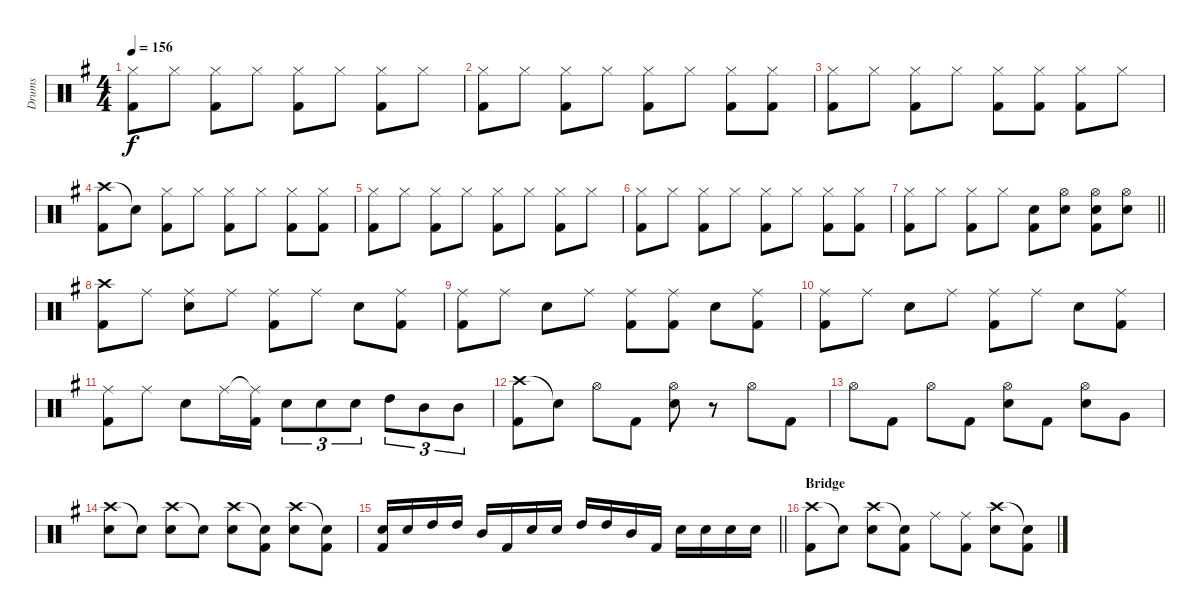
\track ("Drums" "Drums") {instrument percussion}
\staff {score}
\articulation defaults
\ts (4 4)
\tempo 156
\clef neutral
\ks g
("Hi-Hat (closed)" "Kick (hit) 2").8{dy f} "Hi-Hat (closed)".8 ("Hi-Hat (closed)" "Kick (hit) 2").8 "Hi-Hat (closed)".8 ("Hi-Hat (closed)" "Kick (hit) 2").8 "Hi-Hat (closed)".8 ("Hi-Hat (closed)" "Kick (hit) 2").8 "Hi-Hat (closed)".8 |
("Hi-Hat (closed)" "Kick (hit) 2").8 "Hi-Hat (closed)".8 ("Hi-Hat (closed)" "Kick (hit) 2").8 "Hi-Hat (closed)".8 ("Hi-Hat (closed)" "Kick (hit) 2").8 "Hi-Hat (closed)".8 ("Hi-Hat (closed)" "Kick (hit) 2").8 ("Hi-Hat (closed)" "Kick (hit) 2").8 |
("Hi-Hat (closed)" "Kick (hit) 2").8 "Hi-Hat (closed)".8 ("Hi-Hat (closed)" "Kick (hit) 2").8 "Hi-Hat (closed)".8 ("Hi-Hat (closed)" "Kick (hit) 2").8 ("Hi-Hat (closed)" "Kick (hit) 2").8 ("Hi-Hat (closed)" "Kick (hit) 2").8 "Hi-Hat (closed)".8 |
("Crash high (hit)" "Kick (hit) 2").8 "Snare (hit)"{t}.8 ("Hi-Hat (closed)" "Kick (hit) 2").8 "Hi-Hat (closed)".8 ("Hi-Hat (closed)" "Kick (hit) 2").8 "Hi-Hat (closed)".8 ("Hi-Hat (closed)" "Kick (hit) 2").8 ("Hi-Hat (closed)" "Kick (hit) 2").8 |
("Hi-Hat (closed)" "Kick (hit) 2").8 "Hi-Hat (closed)".8 ("Hi-Hat (closed)" "Kick (hit) 2").8 "Hi-Hat (closed)".8 ("Hi-Hat (closed)" "Kick (hit) 2").8 "Hi-Hat (closed)".8 ("Hi-Hat (closed)" "Kick (hit) 2").8 "Hi-Hat (closed)".8 |
("Hi-Hat (closed)" "Kick (hit) 2").8 "Hi-Hat (closed)".8 ("Hi-Hat (closed)" "Kick (hit) 2").8 "Hi-Hat (closed)".8 ("Hi-Hat (closed)" "Kick (hit) 2").8 "Hi-Hat (closed)".8 ("Hi-Hat (closed)" "Kick (hit) 2").8 ("Hi-Hat (closed)" "Kick (hit) 2").8 |
\barLineRight lightlight
("Hi-Hat (closed)" "Kick (hit) 2").8 "Hi-Hat (closed)".8 ("Hi-Hat (closed)" "Kick (hit) 2").8 "Hi-Hat (closed)".8 ("Snare (hit) 2" "Kick (hit) 2").8 ("Hi-Hat (open)" "Snare (hit) 2").8 ("Hi-Hat (open)" "Snare (hit) 2" "Kick (hit) 2").8 ("Hi-Hat (open)" "Snare (hit) 2").8 |
("Crash high (hit)" "Kick (hit) 2").8 "Ride (middle)".8 ("Ride (middle)" "Snare (hit) 2").8 "Ride (middle)".8 ("Ride (middle)" "Kick (hit) 2").8 "Ride (middle)".8 "Snare (hit) 2".8 ("Ride (middle)" "Kick (hit) 2").8 |
("Ride (middle)" "Kick (hit) 2").8 "Ride (middle)".8 "Snare (hit) 2".8 "Ride (middle)".8 ("Ride (middle)" "Kick (hit) 2").8 ("Ride (middle)" "Kick (hit) 2").8 "Snare (hit) 2".8 ("Ride (middle)" "Kick (hit) 2").8 |
("Ride (middle)" "Kick (hit) 2").8 "Ride (middle)".8 "Snare (hit) 2".8 "Ride (middle)".8 ("Ride (middle)" "Kick (hit) 2").8 "Ride (middle)".8 "Snare (hit) 2".8 ("Ride (middle)" "Kick (hit) 2").8 |
("Ride (middle)" "Kick (hit) 2").8 "Ride (middle)".8 "Snare (hit) 2".8 "Ride (middle)".16 ("Ride (middle)"{t} "Kick (hit) 2").16 "Snare (hit) 2".8{tu (3 2)} "Snare (hit) 2".8{tu (3 2)} "Snare (hit) 2".8{tu (3 2)} "High Tom (hit)".8{tu (3 2)} "Mid Tom (hit)".8{tu (3 2)} "Mid Tom (hit)".8{tu (3 2)} |
("Crash high (hit)" "Kick (hit) 2").8 "Snare (hit)"{t}.8 "Hi-Hat (open)".8 "Kick (hit) 2".8 ("Hi-Hat (open)" "Snare (hit) 2").8 r.8 "Hi-Hat (open)".8 "Kick (hit) 2".8 |
"Hi-Hat (open)".8 "Kick (hit) 2".8 "Hi-Hat (open)".8 "Kick (hit) 2".8 ("Hi-Hat (open)" "Snare (hit) 2").8 "Kick (hit) 2".8 ("Hi-Hat (open)" "Snare (hit) 2").8 "Very Low Tom (hit)".8 |
("Crash high (hit)" "Snare (hit) 2").8 "Snare (hit)"{t}.8 ("Crash high (hit)" "Snare (hit) 2").8 "Snare (hit)"{t}.8 ("Crash high (hit)" "Snare (hit) 2").8 ("Snare (hit)"{t} "Kick (hit) 2").8 ("Crash high (hit)" "Snare (hit) 2").8 ("Snare (hit)"{t} "Kick (hit) 2").8 |
\barLineRight lightlight
("Snare (hit) 2" "Kick (hit) 2").16 "Snare (hit) 2".16 "High Tom (hit)".16 "High Tom (hit)".16 "Mid Tom (hit)".16 "Kick (hit) 2".16 "Snare (hit) 2".16 "Snare (hit) 2".16 "High Tom (hit)".16 "High Tom (hit)".16 "Mid Tom (hit)".16 "Kick (hit) 2".16 "Snare (hit) 2".16 "Snare (hit) 2".16 "Snare (hit) 2".16 "Snare (hit) 2".16 |
\section ("" "Bridge")
("Crash high (hit)" "Kick (hit) 2").8 "Snare (hit)"{t}.8 ("Crash high (hit)" "Snare (hit) 2").8 ("Snare (hit)"{t} "Kick (hit) 2").8 "Ride (middle)".8 ("Ride (middle)" "Kick (hit) 2").8 ("Crash high (hit)" "Snare (hit) 2").8 ("Snare (hit)"{t} "Kick (hit) 2").8
